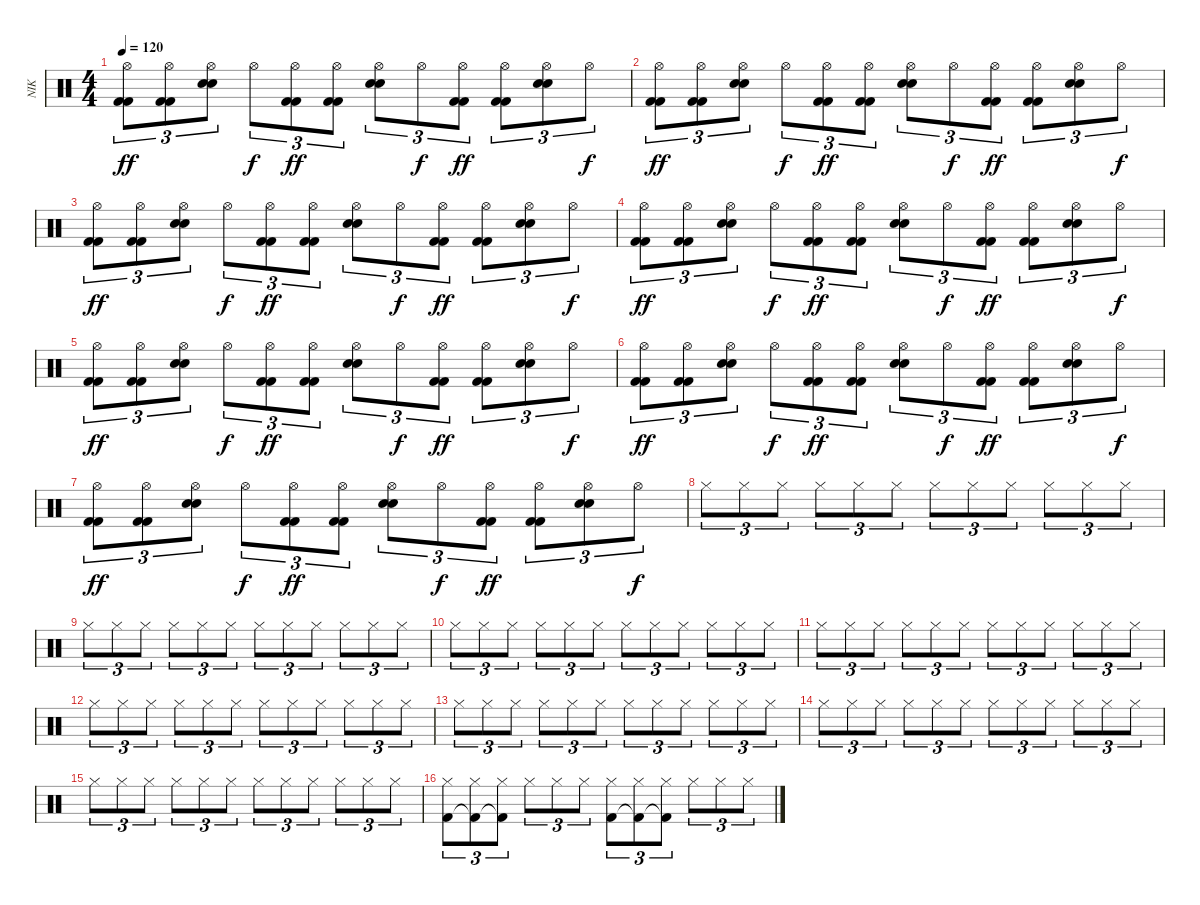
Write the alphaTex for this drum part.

\track ("NIK" "NIK") {instrument percussion}
\staff {score}
\articulation defaults
\ts (4 4)
\tempo 120
\clef neutral
\ks c
("Kick (hit) 2" "Kick (hit) 2" "Hi-Hat (open)").8{tu (3 2) dy ff} ("Kick (hit) 2" "Kick (hit) 2" "Hi-Hat (open)").8{tu (3 2)} ("Electric Snare (hit)" "Electric Snare (hit)" "Hi-Hat (open)").8{tu (3 2)} "Hi-Hat (open)".8{tu (3 2) dy f} ("Kick (hit) 2" "Kick (hit) 2" "Hi-Hat (open)").8{tu (3 2) dy ff} ("Kick (hit) 2" "Kick (hit) 2" "Hi-Hat (open)").8{tu (3 2)} ("Electric Snare (hit)" "Electric Snare (hit)" "Hi-Hat (open)").8{tu (3 2)} "Hi-Hat (open)".8{tu (3 2) dy f} ("Kick (hit) 2" "Kick (hit) 2" "Hi-Hat (open)").8{tu (3 2) dy ff} ("Kick (hit) 2" "Kick (hit) 2" "Hi-Hat (open)").8{tu (3 2)} ("Electric Snare (hit)" "Electric Snare (hit)" "Hi-Hat (open)").8{tu (3 2)} "Hi-Hat (open)".8{tu (3 2) dy f} |
("Kick (hit) 2" "Kick (hit) 2" "Hi-Hat (open)").8{tu (3 2) dy ff} ("Kick (hit) 2" "Kick (hit) 2" "Hi-Hat (open)").8{tu (3 2)} ("Electric Snare (hit)" "Electric Snare (hit)" "Hi-Hat (open)").8{tu (3 2)} "Hi-Hat (open)".8{tu (3 2) dy f} ("Kick (hit) 2" "Kick (hit) 2" "Hi-Hat (open)").8{tu (3 2) dy ff} ("Kick (hit) 2" "Kick (hit) 2" "Hi-Hat (open)").8{tu (3 2)} ("Electric Snare (hit)" "Electric Snare (hit)" "Hi-Hat (open)").8{tu (3 2)} "Hi-Hat (open)".8{tu (3 2) dy f} ("Kick (hit) 2" "Kick (hit) 2" "Hi-Hat (open)").8{tu (3 2) dy ff} ("Kick (hit) 2" "Kick (hit) 2" "Hi-Hat (open)").8{tu (3 2)} ("Electric Snare (hit)" "Electric Snare (hit)" "Hi-Hat (open)").8{tu (3 2)} "Hi-Hat (open)".8{tu (3 2) dy f} |
("Kick (hit) 2" "Kick (hit) 2" "Hi-Hat (open)").8{tu (3 2) dy ff} ("Kick (hit) 2" "Kick (hit) 2" "Hi-Hat (open)").8{tu (3 2)} ("Electric Snare (hit)" "Electric Snare (hit)" "Hi-Hat (open)").8{tu (3 2)} "Hi-Hat (open)".8{tu (3 2) dy f} ("Kick (hit) 2" "Kick (hit) 2" "Hi-Hat (open)").8{tu (3 2) dy ff} ("Kick (hit) 2" "Kick (hit) 2" "Hi-Hat (open)").8{tu (3 2)} ("Electric Snare (hit)" "Electric Snare (hit)" "Hi-Hat (open)").8{tu (3 2)} "Hi-Hat (open)".8{tu (3 2) dy f} ("Kick (hit) 2" "Kick (hit) 2" "Hi-Hat (open)").8{tu (3 2) dy ff} ("Kick (hit) 2" "Kick (hit) 2" "Hi-Hat (open)").8{tu (3 2)} ("Electric Snare (hit)" "Electric Snare (hit)" "Hi-Hat (open)").8{tu (3 2)} "Hi-Hat (open)".8{tu (3 2) dy f} |
("Kick (hit) 2" "Kick (hit) 2" "Hi-Hat (open)").8{tu (3 2) dy ff} ("Kick (hit) 2" "Kick (hit) 2" "Hi-Hat (open)").8{tu (3 2)} ("Electric Snare (hit)" "Electric Snare (hit)" "Hi-Hat (open)").8{tu (3 2)} "Hi-Hat (open)".8{tu (3 2) dy f} ("Kick (hit) 2" "Kick (hit) 2" "Hi-Hat (open)").8{tu (3 2) dy ff} ("Kick (hit) 2" "Kick (hit) 2" "Hi-Hat (open)").8{tu (3 2)} ("Electric Snare (hit)" "Electric Snare (hit)" "Hi-Hat (open)").8{tu (3 2)} "Hi-Hat (open)".8{tu (3 2) dy f} ("Kick (hit) 2" "Kick (hit) 2" "Hi-Hat (open)").8{tu (3 2) dy ff} ("Kick (hit) 2" "Kick (hit) 2" "Hi-Hat (open)").8{tu (3 2)} ("Electric Snare (hit)" "Electric Snare (hit)" "Hi-Hat (open)").8{tu (3 2)} "Hi-Hat (open)".8{tu (3 2) dy f} |
("Kick (hit) 2" "Kick (hit) 2" "Hi-Hat (open)").8{tu (3 2) dy ff} ("Kick (hit) 2" "Kick (hit) 2" "Hi-Hat (open)").8{tu (3 2)} ("Electric Snare (hit)" "Electric Snare (hit)" "Hi-Hat (open)").8{tu (3 2)} "Hi-Hat (open)".8{tu (3 2) dy f} ("Kick (hit) 2" "Kick (hit) 2" "Hi-Hat (open)").8{tu (3 2) dy ff} ("Kick (hit) 2" "Kick (hit) 2" "Hi-Hat (open)").8{tu (3 2)} ("Electric Snare (hit)" "Electric Snare (hit)" "Hi-Hat (open)").8{tu (3 2)} "Hi-Hat (open)".8{tu (3 2) dy f} ("Kick (hit) 2" "Kick (hit) 2" "Hi-Hat (open)").8{tu (3 2) dy ff} ("Kick (hit) 2" "Kick (hit) 2" "Hi-Hat (open)").8{tu (3 2)} ("Electric Snare (hit)" "Electric Snare (hit)" "Hi-Hat (open)").8{tu (3 2)} "Hi-Hat (open)".8{tu (3 2) dy f} |
("Kick (hit) 2" "Kick (hit) 2" "Hi-Hat (open)").8{tu (3 2) dy ff} ("Kick (hit) 2" "Kick (hit) 2" "Hi-Hat (open)").8{tu (3 2)} ("Electric Snare (hit)" "Electric Snare (hit)" "Hi-Hat (open)").8{tu (3 2)} "Hi-Hat (open)".8{tu (3 2) dy f} ("Kick (hit) 2" "Kick (hit) 2" "Hi-Hat (open)").8{tu (3 2) dy ff} ("Kick (hit) 2" "Kick (hit) 2" "Hi-Hat (open)").8{tu (3 2)} ("Electric Snare (hit)" "Electric Snare (hit)" "Hi-Hat (open)").8{tu (3 2)} "Hi-Hat (open)".8{tu (3 2) dy f} ("Kick (hit) 2" "Kick (hit) 2" "Hi-Hat (open)").8{tu (3 2) dy ff} ("Kick (hit) 2" "Kick (hit) 2" "Hi-Hat (open)").8{tu (3 2)} ("Electric Snare (hit)" "Electric Snare (hit)" "Hi-Hat (open)").8{tu (3 2)} "Hi-Hat (open)".8{tu (3 2) dy f} |
("Kick (hit) 2" "Kick (hit) 2" "Hi-Hat (open)").8{tu (3 2) dy ff} ("Kick (hit) 2" "Kick (hit) 2" "Hi-Hat (open)").8{tu (3 2)} ("Electric Snare (hit)" "Electric Snare (hit)" "Hi-Hat (open)").8{tu (3 2)} "Hi-Hat (open)".8{tu (3 2) dy f} ("Kick (hit) 2" "Kick (hit) 2" "Hi-Hat (open)").8{tu (3 2) dy ff} ("Kick (hit) 2" "Kick (hit) 2" "Hi-Hat (open)").8{tu (3 2)} ("Electric Snare (hit)" "Electric Snare (hit)" "Hi-Hat (open)").8{tu (3 2)} "Hi-Hat (open)".8{tu (3 2) dy f} ("Kick (hit) 2" "Kick (hit) 2" "Hi-Hat (open)").8{tu (3 2) dy ff} ("Kick (hit) 2" "Kick (hit) 2" "Hi-Hat (open)").8{tu (3 2)} ("Electric Snare (hit)" "Electric Snare (hit)" "Hi-Hat (open)").8{tu (3 2)} "Hi-Hat (open)".8{tu (3 2) dy f} |
"Hi-Hat (closed)".8{tu (3 2)} "Hi-Hat (closed)".8{tu (3 2)} "Hi-Hat (closed)".8{tu (3 2)} "Hi-Hat (closed)".8{tu (3 2)} "Hi-Hat (closed)".8{tu (3 2)} "Hi-Hat (closed)".8{tu (3 2)} "Hi-Hat (closed)".8{tu (3 2)} "Hi-Hat (closed)".8{tu (3 2)} "Hi-Hat (closed)".8{tu (3 2)} "Hi-Hat (closed)".8{tu (3 2)} "Hi-Hat (closed)".8{tu (3 2)} "Hi-Hat (closed)".8{tu (3 2)} |
"Hi-Hat (closed)".8{tu (3 2)} "Hi-Hat (closed)".8{tu (3 2)} "Hi-Hat (closed)".8{tu (3 2)} "Hi-Hat (closed)".8{tu (3 2)} "Hi-Hat (closed)".8{tu (3 2)} "Hi-Hat (closed)".8{tu (3 2)} "Hi-Hat (closed)".8{tu (3 2)} "Hi-Hat (closed)".8{tu (3 2)} "Hi-Hat (closed)".8{tu (3 2)} "Hi-Hat (closed)".8{tu (3 2)} "Hi-Hat (closed)".8{tu (3 2)} "Hi-Hat (closed)".8{tu (3 2)} |
"Hi-Hat (closed)".8{tu (3 2)} "Hi-Hat (closed)".8{tu (3 2)} "Hi-Hat (closed)".8{tu (3 2)} "Hi-Hat (closed)".8{tu (3 2)} "Hi-Hat (closed)".8{tu (3 2)} "Hi-Hat (closed)".8{tu (3 2)} "Hi-Hat (closed)".8{tu (3 2)} "Hi-Hat (closed)".8{tu (3 2)} "Hi-Hat (closed)".8{tu (3 2)} "Hi-Hat (closed)".8{tu (3 2)} "Hi-Hat (closed)".8{tu (3 2)} "Hi-Hat (closed)".8{tu (3 2)} |
"Hi-Hat (closed)".8{tu (3 2)} "Hi-Hat (closed)".8{tu (3 2)} "Hi-Hat (closed)".8{tu (3 2)} "Hi-Hat (closed)".8{tu (3 2)} "Hi-Hat (closed)".8{tu (3 2)} "Hi-Hat (closed)".8{tu (3 2)} "Hi-Hat (closed)".8{tu (3 2)} "Hi-Hat (closed)".8{tu (3 2)} "Hi-Hat (closed)".8{tu (3 2)} "Hi-Hat (closed)".8{tu (3 2)} "Hi-Hat (closed)".8{tu (3 2)} "Hi-Hat (closed)".8{tu (3 2)} |
"Hi-Hat (closed)".8{tu (3 2)} "Hi-Hat (closed)".8{tu (3 2)} "Hi-Hat (closed)".8{tu (3 2)} "Hi-Hat (closed)".8{tu (3 2)} "Hi-Hat (closed)".8{tu (3 2)} "Hi-Hat (closed)".8{tu (3 2)} "Hi-Hat (closed)".8{tu (3 2)} "Hi-Hat (closed)".8{tu (3 2)} "Hi-Hat (closed)".8{tu (3 2)} "Hi-Hat (closed)".8{tu (3 2)} "Hi-Hat (closed)".8{tu (3 2)} "Hi-Hat (closed)".8{tu (3 2)} |
"Hi-Hat (closed)".8{tu (3 2)} "Hi-Hat (closed)".8{tu (3 2)} "Hi-Hat (closed)".8{tu (3 2)} "Hi-Hat (closed)".8{tu (3 2)} "Hi-Hat (closed)".8{tu (3 2)} "Hi-Hat (closed)".8{tu (3 2)} "Hi-Hat (closed)".8{tu (3 2)} "Hi-Hat (closed)".8{tu (3 2)} "Hi-Hat (closed)".8{tu (3 2)} "Hi-Hat (closed)".8{tu (3 2)} "Hi-Hat (closed)".8{tu (3 2)} "Hi-Hat (closed)".8{tu (3 2)} |
"Hi-Hat (closed)".8{tu (3 2)} "Hi-Hat (closed)".8{tu (3 2)} "Hi-Hat (closed)".8{tu (3 2)} "Hi-Hat (closed)".8{tu (3 2)} "Hi-Hat (closed)".8{tu (3 2)} "Hi-Hat (closed)".8{tu (3 2)} "Hi-Hat (closed)".8{tu (3 2)} "Hi-Hat (closed)".8{tu (3 2)} "Hi-Hat (closed)".8{tu (3 2)} "Hi-Hat (closed)".8{tu (3 2)} "Hi-Hat (closed)".8{tu (3 2)} "Hi-Hat (closed)".8{tu (3 2)} |
"Hi-Hat (closed)".8{tu (3 2)} "Hi-Hat (closed)".8{tu (3 2)} "Hi-Hat (closed)".8{tu (3 2)} "Hi-Hat (closed)".8{tu (3 2)} "Hi-Hat (closed)".8{tu (3 2)} "Hi-Hat (closed)".8{tu (3 2)} "Hi-Hat (closed)".8{tu (3 2)} "Hi-Hat (closed)".8{tu (3 2)} "Hi-Hat (closed)".8{tu (3 2)} "Hi-Hat (closed)".8{tu (3 2)} "Hi-Hat (closed)".8{tu (3 2)} "Hi-Hat (closed)".8{tu (3 2)} |
("Hi-Hat (closed)" "Kick (hit) 2").8{tu (3 2)} ("Hi-Hat (closed)" "Kick (hit) 2"{t}).8{tu (3 2)} ("Hi-Hat (closed)" "Kick (hit) 2"{t}).8{tu (3 2)} "Hi-Hat (closed)".8{tu (3 2)} "Hi-Hat (closed)".8{tu (3 2)} "Hi-Hat (closed)".8{tu (3 2)} ("Hi-Hat (closed)" "Kick (hit) 2").8{tu (3 2)} ("Hi-Hat (closed)" "Kick (hit) 2"{t}).8{tu (3 2)} ("Hi-Hat (closed)" "Kick (hit) 2"{t}).8{tu (3 2)} "Hi-Hat (closed)".8{tu (3 2)} "Hi-Hat (closed)".8{tu (3 2)} "Hi-Hat (closed)".8{tu (3 2)}
